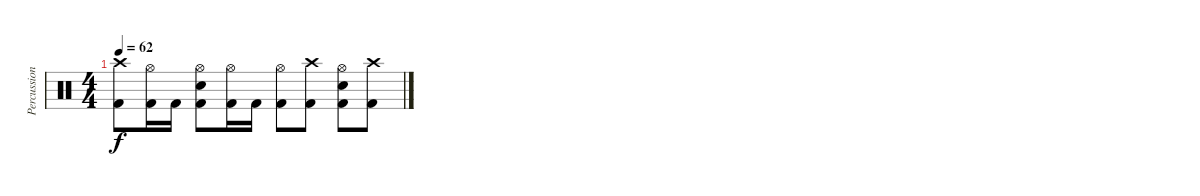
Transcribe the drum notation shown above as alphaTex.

\track ("Percussion" "Percussion") {instrument percussion}
\staff {score}
\articulation defaults
\ts (4 4)
\tempo 62
\clef neutral
\ks c
("Crash high (hit)" "Kick (hit) 2").8{dy f} ("Hi-Hat (open)" "Kick (hit) 2").16 "Kick (hit) 2".16 ("Hi-Hat (open)" "Snare (hit) 2" "Kick (hit) 2").8 ("Hi-Hat (open)" "Kick (hit) 2").16 "Kick (hit) 2".16 ("Hi-Hat (open)" "Kick (hit) 2").8 ("Crash high (hit)" "Kick (hit) 2").8 ("Hi-Hat (open)" "Snare (hit) 2" "Kick (hit) 2").8 ("Crash high (hit)" "Kick (hit) 2").8
